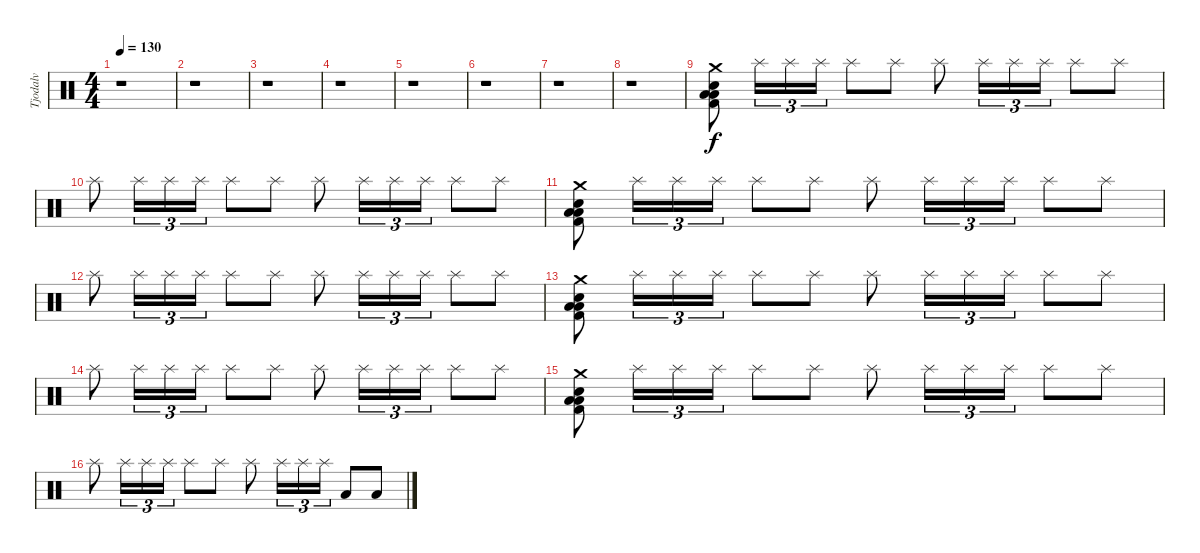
\track ("Tjodalv" "Tjodalv") {instrument percussion}
\staff {score}
\articulation defaults
\ts (4 4)
\tempo 130
\clef neutral
\ks c
r.1{dy f} |
r.1 |
r.1 |
r.1 |
r.1 |
r.1 |
r.1 |
r.1 |
("Kick (hit) 2" "Low Tom (hit)" "Snare (hit) 2" "Low Tom (hit)" "Crash medium (hit)").8 "Splash (hit)".16{tu (3 2)} "Splash (hit)".16{tu (3 2)} "Splash (hit)".16{tu (3 2)} "Splash (hit)".8 "Splash (hit)".8 "Splash (hit)".8 "Splash (hit)".16{tu (3 2)} "Splash (hit)".16{tu (3 2)} "Splash (hit)".16{tu (3 2)} "Splash (hit)".8 "Splash (hit)".8 |
"Splash (hit)".8 "Splash (hit)".16{tu (3 2)} "Splash (hit)".16{tu (3 2)} "Splash (hit)".16{tu (3 2)} "Splash (hit)".8 "Splash (hit)".8 "Splash (hit)".8 "Splash (hit)".16{tu (3 2)} "Splash (hit)".16{tu (3 2)} "Splash (hit)".16{tu (3 2)} "Splash (hit)".8 "Splash (hit)".8 |
("Kick (hit) 2" "Low Tom (hit)" "Snare (hit) 2" "Low Tom (hit)" "Crash medium (hit)").8 "Splash (hit)".16{tu (3 2)} "Splash (hit)".16{tu (3 2)} "Splash (hit)".16{tu (3 2)} "Splash (hit)".8 "Splash (hit)".8 "Splash (hit)".8 "Splash (hit)".16{tu (3 2)} "Splash (hit)".16{tu (3 2)} "Splash (hit)".16{tu (3 2)} "Splash (hit)".8 "Splash (hit)".8 |
"Splash (hit)".8 "Splash (hit)".16{tu (3 2)} "Splash (hit)".16{tu (3 2)} "Splash (hit)".16{tu (3 2)} "Splash (hit)".8 "Splash (hit)".8 "Splash (hit)".8 "Splash (hit)".16{tu (3 2)} "Splash (hit)".16{tu (3 2)} "Splash (hit)".16{tu (3 2)} "Splash (hit)".8 "Splash (hit)".8 |
("Kick (hit) 2" "Low Tom (hit)" "Snare (hit) 2" "Low Tom (hit)" "Crash medium (hit)").8 "Splash (hit)".16{tu (3 2)} "Splash (hit)".16{tu (3 2)} "Splash (hit)".16{tu (3 2)} "Splash (hit)".8 "Splash (hit)".8 "Splash (hit)".8 "Splash (hit)".16{tu (3 2)} "Splash (hit)".16{tu (3 2)} "Splash (hit)".16{tu (3 2)} "Splash (hit)".8 "Splash (hit)".8 |
"Splash (hit)".8 "Splash (hit)".16{tu (3 2)} "Splash (hit)".16{tu (3 2)} "Splash (hit)".16{tu (3 2)} "Splash (hit)".8 "Splash (hit)".8 "Splash (hit)".8 "Splash (hit)".16{tu (3 2)} "Splash (hit)".16{tu (3 2)} "Splash (hit)".16{tu (3 2)} "Splash (hit)".8 "Splash (hit)".8 |
("Kick (hit) 2" "Low Tom (hit)" "Snare (hit) 2" "Low Tom (hit)" "Crash medium (hit)").8 "Splash (hit)".16{tu (3 2)} "Splash (hit)".16{tu (3 2)} "Splash (hit)".16{tu (3 2)} "Splash (hit)".8 "Splash (hit)".8 "Splash (hit)".8 "Splash (hit)".16{tu (3 2)} "Splash (hit)".16{tu (3 2)} "Splash (hit)".16{tu (3 2)} "Splash (hit)".8 "Splash (hit)".8 |
"Splash (hit)".8 "Splash (hit)".16{tu (3 2)} "Splash (hit)".16{tu (3 2)} "Splash (hit)".16{tu (3 2)} "Splash (hit)".8 "Splash (hit)".8 "Splash (hit)".8 "Splash (hit)".16{tu (3 2)} "Splash (hit)".16{tu (3 2)} "Splash (hit)".16{tu (3 2)} "Low Floor Tom (hit)".8 "Low Floor Tom (hit)".8
